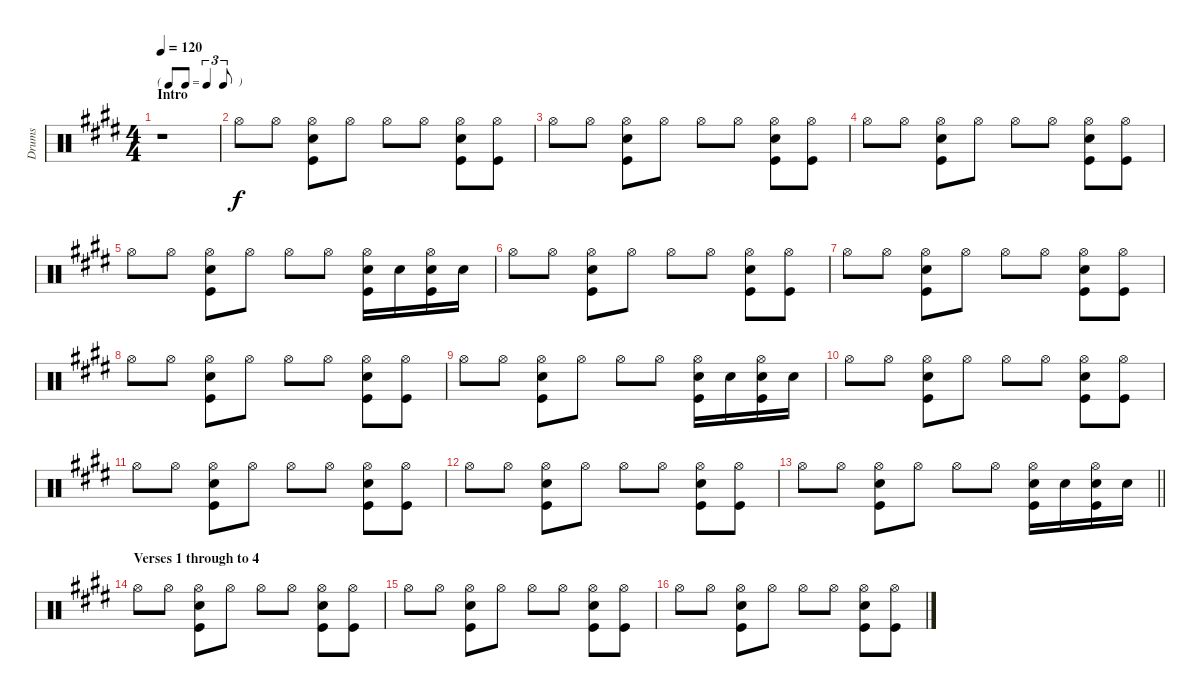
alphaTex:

\track ("Drums" "Drums") {instrument percussion}
\staff {score}
\articulation defaults
\ts (4 4)
\tf triplet8th
\section ("" "Intro")
\tempo 120
\clef neutral
\ks e
r.1{dy f} |
"Hi-Hat (open)".8 "Hi-Hat (open)".8 ("Kick (hit)" "Electric Snare (hit)" "Hi-Hat (open)").8 "Hi-Hat (open)".8 "Hi-Hat (open)".8 "Hi-Hat (open)".8 ("Kick (hit)" "Electric Snare (hit)" "Hi-Hat (open)").8 ("Kick (hit)" "Hi-Hat (open)").8 |
"Hi-Hat (open)".8 "Hi-Hat (open)".8 ("Kick (hit)" "Electric Snare (hit)" "Hi-Hat (open)").8 "Hi-Hat (open)".8 "Hi-Hat (open)".8 "Hi-Hat (open)".8 ("Kick (hit)" "Electric Snare (hit)" "Hi-Hat (open)").8 ("Kick (hit)" "Hi-Hat (open)").8 |
"Hi-Hat (open)".8 "Hi-Hat (open)".8 ("Kick (hit)" "Electric Snare (hit)" "Hi-Hat (open)").8 "Hi-Hat (open)".8 "Hi-Hat (open)".8 "Hi-Hat (open)".8 ("Kick (hit)" "Electric Snare (hit)" "Hi-Hat (open)").8 ("Kick (hit)" "Hi-Hat (open)").8 |
"Hi-Hat (open)".8 "Hi-Hat (open)".8 ("Kick (hit)" "Electric Snare (hit)" "Hi-Hat (open)").8 "Hi-Hat (open)".8 "Hi-Hat (open)".8 "Hi-Hat (open)".8 ("Kick (hit)" "Electric Snare (hit)" "Hi-Hat (open)").16 "Electric Snare (hit)".16 ("Electric Snare (hit)" "Kick (hit)" "Hi-Hat (open)").16 "Electric Snare (hit)".16 |
"Hi-Hat (open)".8 "Hi-Hat (open)".8 ("Kick (hit)" "Electric Snare (hit)" "Hi-Hat (open)").8 "Hi-Hat (open)".8 "Hi-Hat (open)".8 "Hi-Hat (open)".8 ("Kick (hit)" "Electric Snare (hit)" "Hi-Hat (open)").8 ("Kick (hit)" "Hi-Hat (open)").8 |
"Hi-Hat (open)".8 "Hi-Hat (open)".8 ("Kick (hit)" "Electric Snare (hit)" "Hi-Hat (open)").8 "Hi-Hat (open)".8 "Hi-Hat (open)".8 "Hi-Hat (open)".8 ("Kick (hit)" "Electric Snare (hit)" "Hi-Hat (open)").8 ("Kick (hit)" "Hi-Hat (open)").8 |
"Hi-Hat (open)".8 "Hi-Hat (open)".8 ("Kick (hit)" "Electric Snare (hit)" "Hi-Hat (open)").8 "Hi-Hat (open)".8 "Hi-Hat (open)".8 "Hi-Hat (open)".8 ("Kick (hit)" "Electric Snare (hit)" "Hi-Hat (open)").8 ("Kick (hit)" "Hi-Hat (open)").8 |
"Hi-Hat (open)".8 "Hi-Hat (open)".8 ("Kick (hit)" "Electric Snare (hit)" "Hi-Hat (open)").8 "Hi-Hat (open)".8 "Hi-Hat (open)".8 "Hi-Hat (open)".8 ("Kick (hit)" "Electric Snare (hit)" "Hi-Hat (open)").16 "Electric Snare (hit)".16 ("Electric Snare (hit)" "Kick (hit)" "Hi-Hat (open)").16 "Electric Snare (hit)".16 |
"Hi-Hat (open)".8 "Hi-Hat (open)".8 ("Kick (hit)" "Electric Snare (hit)" "Hi-Hat (open)").8 "Hi-Hat (open)".8 "Hi-Hat (open)".8 "Hi-Hat (open)".8 ("Kick (hit)" "Electric Snare (hit)" "Hi-Hat (open)").8 ("Kick (hit)" "Hi-Hat (open)").8 |
"Hi-Hat (open)".8 "Hi-Hat (open)".8 ("Kick (hit)" "Electric Snare (hit)" "Hi-Hat (open)").8 "Hi-Hat (open)".8 "Hi-Hat (open)".8 "Hi-Hat (open)".8 ("Kick (hit)" "Electric Snare (hit)" "Hi-Hat (open)").8 ("Kick (hit)" "Hi-Hat (open)").8 |
"Hi-Hat (open)".8 "Hi-Hat (open)".8 ("Kick (hit)" "Electric Snare (hit)" "Hi-Hat (open)").8 "Hi-Hat (open)".8 "Hi-Hat (open)".8 "Hi-Hat (open)".8 ("Kick (hit)" "Electric Snare (hit)" "Hi-Hat (open)").8 ("Kick (hit)" "Hi-Hat (open)").8 |
\barLineRight lightlight "Hi-Hat (open)".8 "Hi-Hat (open)".8
("Kick (hit)" "Electric Snare (hit)" "Hi-Hat (open)").8 "Hi-Hat (open)".8 "Hi-Hat (open)".8 "Hi-Hat (open)".8 ("Kick (hit)" "Electric Snare (hit)" "Hi-Hat (open)").16 "Electric Snare (hit)".16 ("Electric Snare (hit)" "Kick (hit)" "Hi-Hat (open)").16 "Electric Snare (hit)".16 |
\section ("" "Verses 1 through to 4")
"Hi-Hat (open)".8 "Hi-Hat (open)".8 ("Kick (hit)" "Electric Snare (hit)" "Hi-Hat (open)").8 "Hi-Hat (open)".8 "Hi-Hat (open)".8 "Hi-Hat (open)".8 ("Kick (hit)" "Electric Snare (hit)" "Hi-Hat (open)").8 ("Kick (hit)" "Hi-Hat (open)").8 |
"Hi-Hat (open)".8 "Hi-Hat (open)".8 ("Kick (hit)" "Electric Snare (hit)" "Hi-Hat (open)").8 "Hi-Hat (open)".8 "Hi-Hat (open)".8 "Hi-Hat (open)".8 ("Kick (hit)" "Electric Snare (hit)" "Hi-Hat (open)").8 ("Kick (hit)" "Hi-Hat (open)").8 |
"Hi-Hat (open)".8 "Hi-Hat (open)".8 ("Kick (hit)" "Electric Snare (hit)" "Hi-Hat (open)").8 "Hi-Hat (open)".8 "Hi-Hat (open)".8 "Hi-Hat (open)".8 ("Kick (hit)" "Electric Snare (hit)" "Hi-Hat (open)").8 ("Kick (hit)" "Hi-Hat (open)").8
